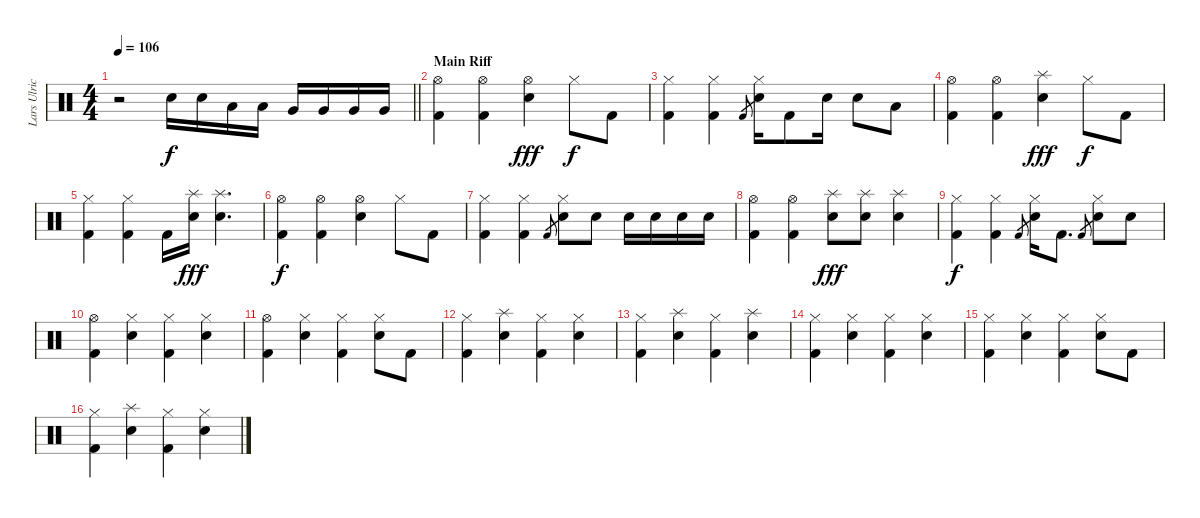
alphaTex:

\track ("Lars Ulrich [Drums]" "Lars Ulric") {instrument percussion}
\staff {score}
\articulation defaults
\ts (4 4)
\tempo 106
\clef neutral
\barLineRight lightlight
\ks c
r.2{dy f} "Electric Snare (hit)".16 "Electric Snare (hit)".16 "Low Tom (hit)".16 "Low Tom (hit)".16 "Very Low Tom (hit)".16 "Very Low Tom (hit)".16 "Very Low Tom (hit)".16 "Very Low Tom (hit)".16 |
\section ("" "Main Riff")
("Hi-Hat (open)" "Kick (hit) 2").4 ("Hi-Hat (open)" "Kick (hit) 2").4 ("Hi-Hat (open)" "Electric Snare (hit)").4{dy fff} "Hi-Hat (closed)".8{dy f} "Kick (hit) 2".8 |
("Hi-Hat (closed)" "Kick (hit) 2").4 ("Hi-Hat (closed)" "Kick (hit) 2").4 "Kick (hit) 2".8{gr} ("Hi-Hat (closed)" "Electric Snare (hit)").16 "Kick (hit) 2".8 "Electric Snare (hit)".16 "Electric Snare (hit)".8 "Low Tom (hit)".8 |
("Hi-Hat (open)" "Kick (hit) 2").4 ("Hi-Hat (open)" "Kick (hit) 2").4 ("Splash (hit)" "Electric Snare (hit)").4{dy fff} "Hi-Hat (closed)".8{dy f} "Kick (hit) 2".8 |
("Hi-Hat (closed)" "Kick (hit) 2").4 ("Hi-Hat (closed)" "Kick (hit) 2").4 "Kick (hit) 2".16 ("Splash (hit)" "Electric Snare (hit)").16{dy fff} ("Splash (hit)" "Electric Snare (hit)").4{d} |
("Hi-Hat (open)" "Kick (hit) 2").4{dy f} ("Hi-Hat (open)" "Kick (hit) 2").4 ("Hi-Hat (open)" "Electric Snare (hit)").4 "Hi-Hat (closed)".8 "Kick (hit) 2".8 |
("Hi-Hat (closed)" "Kick (hit) 2").4 ("Hi-Hat (closed)" "Kick (hit) 2").4 "Kick (hit) 2".8{gr} ("Hi-Hat (closed)" "Electric Snare (hit)").8 "Electric Snare (hit)".8 "Electric Snare (hit)".16 "Electric Snare (hit)".16 "Electric Snare (hit)".16 "Electric Snare (hit)".16 |
("Hi-Hat (open)" "Kick (hit) 2").4 ("Hi-Hat (open)" "Kick (hit) 2").4 ("Splash (hit)" "Electric Snare (hit)").8{dy fff} ("Splash (hit)" "Electric Snare (hit)").8 ("Splash (hit)" "Electric Snare (hit)").4 |
("Hi-Hat (closed)" "Kick (hit) 2").4{dy f} ("Hi-Hat (closed)" "Kick (hit) 2").4 "Kick (hit) 2".8{gr} ("Hi-Hat (closed)" "Electric Snare (hit)").16 "Kick (hit) 2".8{d} "Kick (hit) 2".8{gr} ("Hi-Hat (closed)" "Electric Snare (hit)").8 "Electric Snare (hit)".8 |
("Hi-Hat (open)" "Kick (hit) 2").4 ("Hi-Hat (closed)" "Electric Snare (hit)").4 ("Hi-Hat (closed)" "Kick (hit) 2").4 ("Hi-Hat (closed)" "Electric Snare (hit)").4 |
("Hi-Hat (open)" "Kick (hit) 2").4 ("Hi-Hat (closed)" "Electric Snare (hit)").4 ("Hi-Hat (closed)" "Kick (hit) 2").4 ("Hi-Hat (closed)" "Electric Snare (hit)").8 "Kick (hit) 2".8 |
("Hi-Hat (closed)" "Kick (hit) 2").4 ("Splash (hit)" "Electric Snare (hit)").4 ("Hi-Hat (closed)" "Kick (hit) 2").4 ("Hi-Hat (closed)" "Electric Snare (hit)").4 |
("Hi-Hat (closed)" "Kick (hit) 2").4 ("Splash (hit)" "Electric Snare (hit)").4 ("Hi-Hat (closed)" "Kick (hit) 2").4 ("Splash (hit)" "Electric Snare (hit)").4 |
("Hi-Hat (closed)" "Kick (hit) 2").4 ("Hi-Hat (closed)" "Electric Snare (hit)").4 ("Hi-Hat (closed)" "Kick (hit) 2").4 ("Hi-Hat (closed)" "Electric Snare (hit)").4 |
("Hi-Hat (closed)" "Kick (hit) 2").4 ("Hi-Hat (closed)" "Electric Snare (hit)").4 ("Hi-Hat (closed)" "Kick (hit) 2").4 ("Hi-Hat (closed)" "Electric Snare (hit)").8 "Kick (hit) 2".8 |
("Hi-Hat (closed)" "Kick (hit) 2").4 ("Splash (hit)" "Electric Snare (hit)").4 ("Hi-Hat (closed)" "Kick (hit) 2").4 ("Hi-Hat (closed)" "Electric Snare (hit)").4
